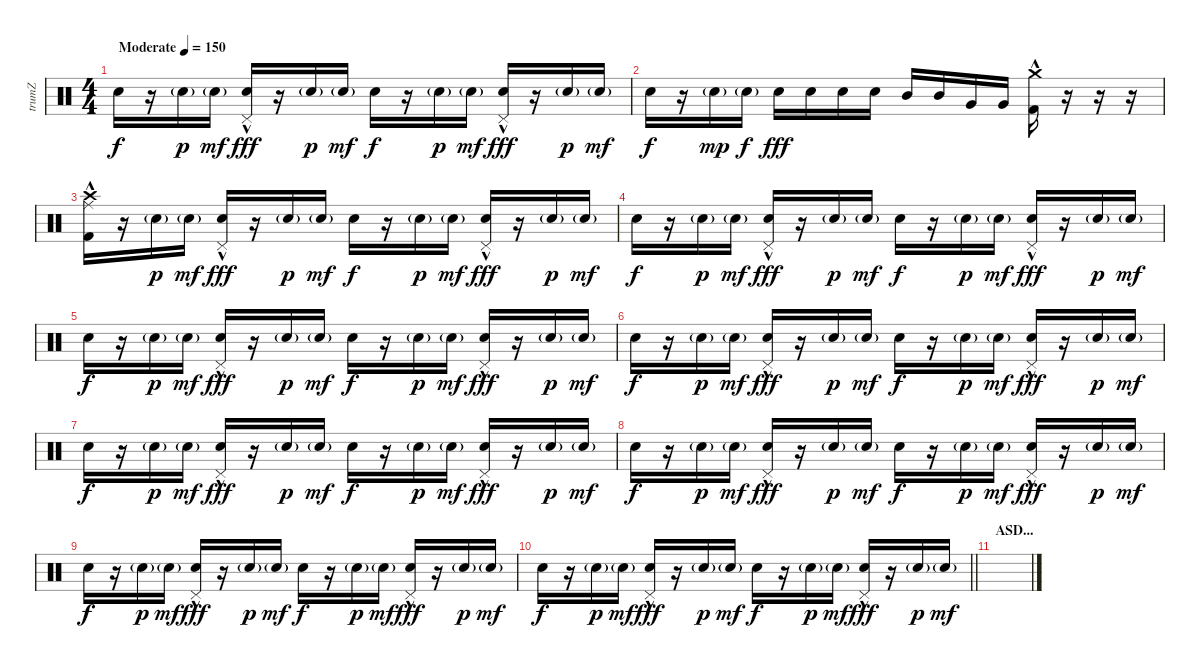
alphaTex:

\track ("trumZ" "trumZ") {instrument percussion}
\staff {score}
\articulation defaults
\ts (4 4)
\tempo (150 "Moderate")
\clef neutral
\ks c "Snare (hit) 2".16{dy f}
r.16 "Snare (hit) 2"{g}.16{dy p} "Snare (hit) 2"{g}.16{dy mf} ("Pedal Hi-Hat (hit)"{hac} "Snare (hit) 2"{hac}).16{dy fff} r.16 "Snare (hit) 2"{g}.16{dy p} "Snare (hit) 2"{g}.16{dy mf} "Snare (hit) 2".16{dy f} r.16 "Snare (hit) 2"{g}.16{dy p} "Snare (hit) 2"{g}.16{dy mf} ("Pedal Hi-Hat (hit)"{hac} "Snare (hit) 2"{hac}).16{dy fff} r.16 "Snare (hit) 2"{g}.16{dy p} "Snare (hit) 2"{g}.16{dy mf} |
"Snare (hit) 2".16{dy f} r.16 "Snare (hit) 2"{g}.16{dy mp} "Snare (hit) 2"{g}.16{dy f} "Snare (hit) 2".16{dy fff} "Snare (hit) 2".16 "Snare (hit) 2".16 "Snare (hit) 2".16 "Mid Tom (hit)".16 "Mid Tom (hit)".16 "Very Low Tom (hit)".16 "Very Low Tom (hit)".16 ("Crash medium (hit)"{hac} "Kick (hit) 2"{hac}).16 r.16 r.16 r.16 |
("Crash high (hit)"{hac} "Ride (middle)"{hac} "Kick (hit) 2"{hac}).16 r.16 "Snare (hit) 2"{g}.16{dy p} "Snare (hit) 2"{g}.16{dy mf} ("Pedal Hi-Hat (hit)"{hac} "Snare (hit) 2"{hac}).16{dy fff} r.16 "Snare (hit) 2"{g}.16{dy p} "Snare (hit) 2"{g}.16{dy mf} "Snare (hit) 2".16{dy f} r.16 "Snare (hit) 2"{g}.16{dy p} "Snare (hit) 2"{g}.16{dy mf} ("Pedal Hi-Hat (hit)"{hac} "Snare (hit) 2"{hac}).16{dy fff} r.16 "Snare (hit) 2"{g}.16{dy p} "Snare (hit) 2"{g}.16{dy mf} |
"Snare (hit) 2".16{dy f} r.16 "Snare (hit) 2"{g}.16{dy p} "Snare (hit) 2"{g}.16{dy mf} ("Pedal Hi-Hat (hit)"{hac} "Snare (hit) 2"{hac}).16{dy fff} r.16 "Snare (hit) 2"{g}.16{dy p} "Snare (hit) 2"{g}.16{dy mf} "Snare (hit) 2".16{dy f} r.16 "Snare (hit) 2"{g}.16{dy p} "Snare (hit) 2"{g}.16{dy mf} ("Pedal Hi-Hat (hit)"{hac} "Snare (hit) 2"{hac}).16{dy fff} r.16 "Snare (hit) 2"{g}.16{dy p} "Snare (hit) 2"{g}.16{dy mf} |
"Snare (hit) 2".16{dy f} r.16 "Snare (hit) 2"{g}.16{dy p} "Snare (hit) 2"{g}.16{dy mf} ("Pedal Hi-Hat (hit)"{hac} "Snare (hit) 2"{hac}).16{dy fff} r.16 "Snare (hit) 2"{g}.16{dy p} "Snare (hit) 2"{g}.16{dy mf} "Snare (hit) 2".16{dy f} r.16 "Snare (hit) 2"{g}.16{dy p} "Snare (hit) 2"{g}.16{dy mf} ("Pedal Hi-Hat (hit)"{hac} "Snare (hit) 2"{hac}).16{dy fff} r.16 "Snare (hit) 2"{g}.16{dy p} "Snare (hit) 2"{g}.16{dy mf} |
"Snare (hit) 2".16{dy f} r.16 "Snare (hit) 2"{g}.16{dy p} "Snare (hit) 2"{g}.16{dy mf} ("Pedal Hi-Hat (hit)"{hac} "Snare (hit) 2"{hac}).16{dy fff} r.16 "Snare (hit) 2"{g}.16{dy p} "Snare (hit) 2"{g}.16{dy mf} "Snare (hit) 2".16{dy f} r.16 "Snare (hit) 2"{g}.16{dy p} "Snare (hit) 2"{g}.16{dy mf} ("Pedal Hi-Hat (hit)"{hac} "Snare (hit) 2"{hac}).16{dy fff} r.16 "Snare (hit) 2"{g}.16{dy p} "Snare (hit) 2"{g}.16{dy mf} |
"Snare (hit) 2".16{dy f} r.16 "Snare (hit) 2"{g}.16{dy p} "Snare (hit) 2"{g}.16{dy mf} ("Pedal Hi-Hat (hit)"{hac} "Snare (hit) 2"{hac}).16{dy fff} r.16 "Snare (hit) 2"{g}.16{dy p} "Snare (hit) 2"{g}.16{dy mf} "Snare (hit) 2".16{dy f} r.16 "Snare (hit) 2"{g}.16{dy p} "Snare (hit) 2"{g}.16{dy mf} ("Pedal Hi-Hat (hit)"{hac} "Snare (hit) 2"{hac}).16{dy fff} r.16 "Snare (hit) 2"{g}.16{dy p} "Snare (hit) 2"{g}.16{dy mf} |
"Snare (hit) 2".16{dy f} r.16 "Snare (hit) 2"{g}.16{dy p} "Snare (hit) 2"{g}.16{dy mf} ("Pedal Hi-Hat (hit)"{hac} "Snare (hit) 2"{hac}).16{dy fff} r.16 "Snare (hit) 2"{g}.16{dy p} "Snare (hit) 2"{g}.16{dy mf} "Snare (hit) 2".16{dy f} r.16 "Snare (hit) 2"{g}.16{dy p} "Snare (hit) 2"{g}.16{dy mf} ("Pedal Hi-Hat (hit)"{hac} "Snare (hit) 2"{hac}).16{dy fff} r.16 "Snare (hit) 2"{g}.16{dy p} "Snare (hit) 2"{g}.16{dy mf} |
"Snare (hit) 2".16{dy f} r.16 "Snare (hit) 2"{g}.16{dy p} "Snare (hit) 2"{g}.16{dy mf} ("Pedal Hi-Hat (hit)"{hac} "Snare (hit) 2"{hac}).16{dy fff} r.16 "Snare (hit) 2"{g}.16{dy p} "Snare (hit) 2"{g}.16{dy mf} "Snare (hit) 2".16{dy f} r.16 "Snare (hit) 2"{g}.16{dy p} "Snare (hit) 2"{g}.16{dy mf} ("Pedal Hi-Hat (hit)"{hac} "Snare (hit) 2"{hac}).16{dy fff} r.16 "Snare (hit) 2"{g}.16{dy p} "Snare (hit) 2"{g}.16{dy mf} |
\barLineRight lightlight "Snare (hit) 2".16{dy f}
r.16 "Snare (hit) 2"{g}.16{dy p} "Snare (hit) 2"{g}.16{dy mf} ("Pedal Hi-Hat (hit)"{hac} "Snare (hit) 2"{hac}).16{dy fff} r.16 "Snare (hit) 2"{g}.16{dy p} "Snare (hit) 2"{g}.16{dy mf} "Snare (hit) 2".16{dy f} r.16 "Snare (hit) 2"{g}.16{dy p} "Snare (hit) 2"{g}.16{dy mf} ("Pedal Hi-Hat (hit)"{hac} "Snare (hit) 2"{hac}).16{dy fff} r.16 "Snare (hit) 2"{g}.16{dy p} "Snare (hit) 2"{g}.16{dy mf} |
\section ("" "ASD...")
